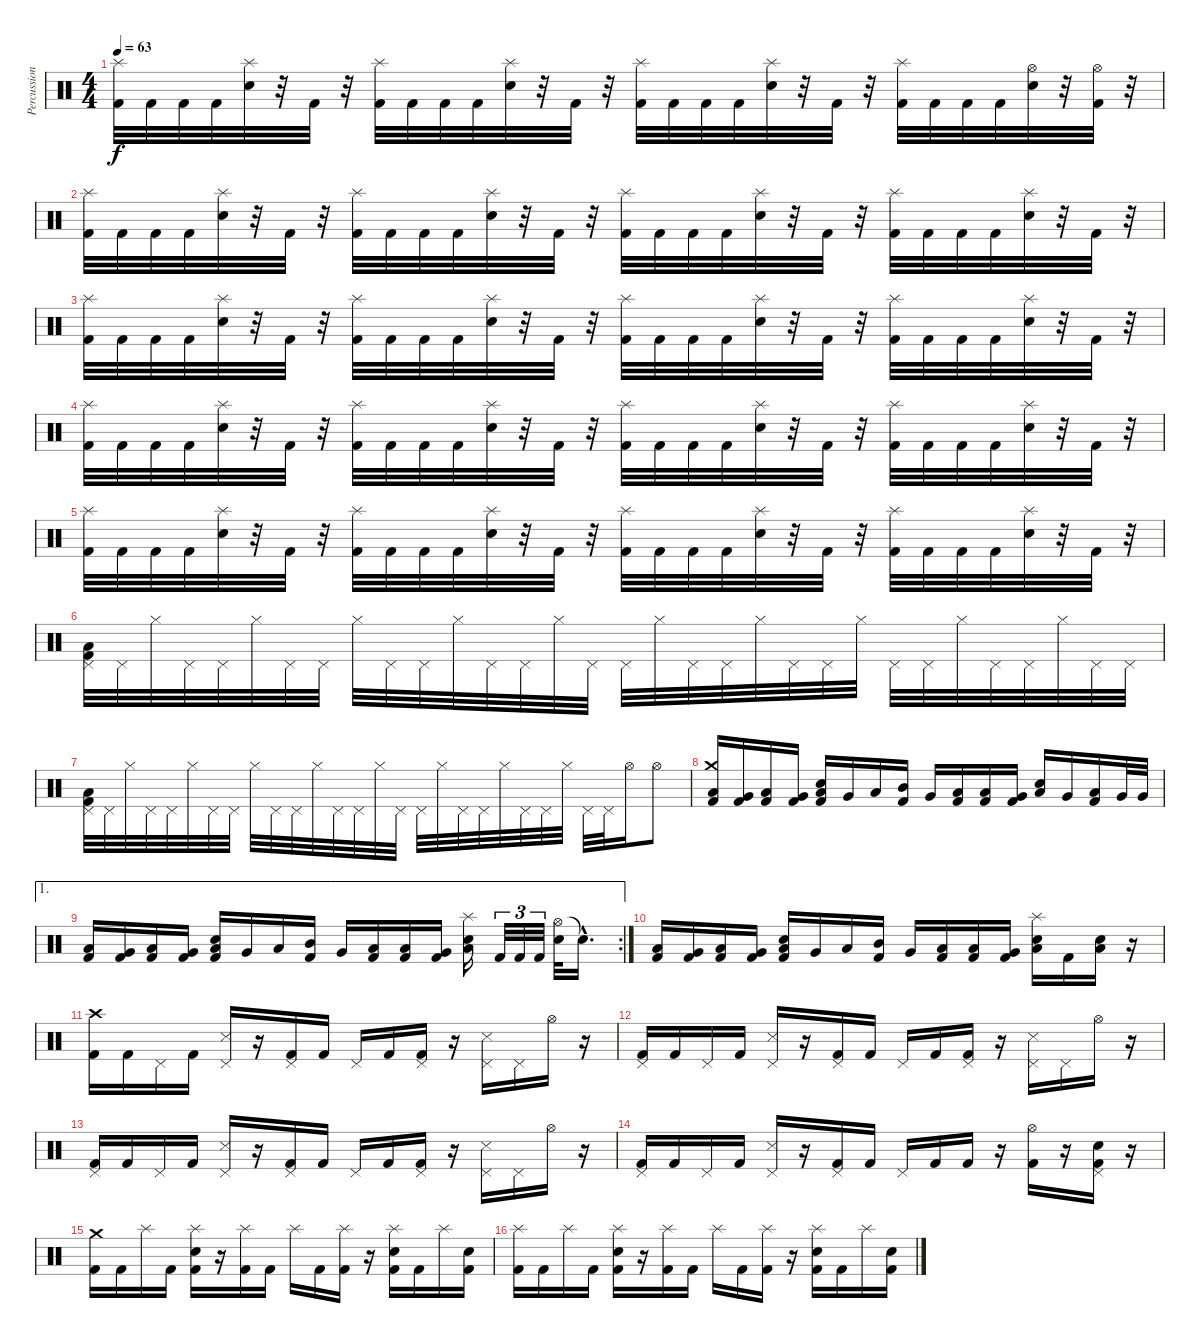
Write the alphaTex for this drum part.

\track ("Percussion" "Percussion") {instrument percussion}
\staff {score}
\articulation defaults
\ts (4 4)
\tempo 63
\clef neutral
\ks c
("Splash (hit)" "Kick (hit) 2").32{dy f} "Kick (hit) 2".32 "Kick (hit) 2".32 "Kick (hit) 2".32 ("Splash (hit)" "Electric Snare (hit)").32 r.32 "Kick (hit) 2".32 r.32 ("Splash (hit)" "Kick (hit) 2").32 "Kick (hit) 2".32 "Kick (hit) 2".32 "Kick (hit) 2".32 ("Splash (hit)" "Electric Snare (hit)").32 r.32 "Kick (hit) 2".32 r.32 ("Splash (hit)" "Kick (hit) 2").32 "Kick (hit) 2".32 "Kick (hit) 2".32 "Kick (hit) 2".32 ("Splash (hit)" "Electric Snare (hit)").32 r.32 "Kick (hit) 2".32 r.32 ("Splash (hit)" "Kick (hit) 2").32 "Kick (hit) 2".32 "Kick (hit) 2".32 "Kick (hit) 2".32 ("Hi-Hat (open)" "Electric Snare (hit)").32 r.32 ("Hi-Hat (open)" "Kick (hit) 2").32 r.32 |
("Splash (hit)" "Kick (hit) 2").32 "Kick (hit) 2".32 "Kick (hit) 2".32 "Kick (hit) 2".32 ("Splash (hit)" "Electric Snare (hit)").32 r.32 "Kick (hit) 2".32 r.32 ("Splash (hit)" "Kick (hit) 2").32 "Kick (hit) 2".32 "Kick (hit) 2".32 "Kick (hit) 2".32 ("Splash (hit)" "Electric Snare (hit)").32 r.32 "Kick (hit) 2".32 r.32 ("Splash (hit)" "Kick (hit) 2").32 "Kick (hit) 2".32 "Kick (hit) 2".32 "Kick (hit) 2".32 ("Splash (hit)" "Electric Snare (hit)").32 r.32 "Kick (hit) 2".32 r.32 ("Splash (hit)" "Kick (hit) 2").32 "Kick (hit) 2".32 "Kick (hit) 2".32 "Kick (hit) 2".32 ("Splash (hit)" "Electric Snare (hit)").32 r.32 "Kick (hit) 2".32 r.32 |
("Splash (hit)" "Kick (hit) 2").32 "Kick (hit) 2".32 "Kick (hit) 2".32 "Kick (hit) 2".32 ("Splash (hit)" "Electric Snare (hit)").32 r.32 "Kick (hit) 2".32 r.32 ("Splash (hit)" "Kick (hit) 2").32 "Kick (hit) 2".32 "Kick (hit) 2".32 "Kick (hit) 2".32 ("Splash (hit)" "Electric Snare (hit)").32 r.32 "Kick (hit) 2".32 r.32 ("Splash (hit)" "Kick (hit) 2").32 "Kick (hit) 2".32 "Kick (hit) 2".32 "Kick (hit) 2".32 ("Splash (hit)" "Electric Snare (hit)").32 r.32 "Kick (hit) 2".32 r.32 ("Splash (hit)" "Kick (hit) 2").32 "Kick (hit) 2".32 "Kick (hit) 2".32 "Kick (hit) 2".32 ("Splash (hit)" "Electric Snare (hit)").32 r.32 "Kick (hit) 2".32 r.32 |
("Splash (hit)" "Kick (hit) 2").32 "Kick (hit) 2".32 "Kick (hit) 2".32 "Kick (hit) 2".32 ("Splash (hit)" "Electric Snare (hit)").32 r.32 "Kick (hit) 2".32 r.32 ("Splash (hit)" "Kick (hit) 2").32 "Kick (hit) 2".32 "Kick (hit) 2".32 "Kick (hit) 2".32 ("Splash (hit)" "Electric Snare (hit)").32 r.32 "Kick (hit) 2".32 r.32 ("Splash (hit)" "Kick (hit) 2").32 "Kick (hit) 2".32 "Kick (hit) 2".32 "Kick (hit) 2".32 ("Splash (hit)" "Electric Snare (hit)").32 r.32 "Kick (hit) 2".32 r.32 ("Splash (hit)" "Kick (hit) 2").32 "Kick (hit) 2".32 "Kick (hit) 2".32 "Kick (hit) 2".32 ("Splash (hit)" "Electric Snare (hit)").32 r.32 "Kick (hit) 2".32 r.32 |
("Splash (hit)" "Kick (hit) 2").32 "Kick (hit) 2".32 "Kick (hit) 2".32 "Kick (hit) 2".32 ("Splash (hit)" "Electric Snare (hit)").32 r.32 "Kick (hit) 2".32 r.32 ("Splash (hit)" "Kick (hit) 2").32 "Kick (hit) 2".32 "Kick (hit) 2".32 "Kick (hit) 2".32 ("Splash (hit)" "Electric Snare (hit)").32 r.32 "Kick (hit) 2".32 r.32 ("Splash (hit)" "Kick (hit) 2").32 "Kick (hit) 2".32 "Kick (hit) 2".32 "Kick (hit) 2".32 ("Splash (hit)" "Electric Snare (hit)").32 r.32 "Kick (hit) 2".32 r.32 ("Splash (hit)" "Kick (hit) 2").32 "Kick (hit) 2".32 "Kick (hit) 2".32 "Kick (hit) 2".32 ("Splash (hit)" "Electric Snare (hit)").32 r.32 "Kick (hit) 2".32 r.32 |
("Pedal Hi-Hat (hit)" "Low Floor Tom (hit)" "Kick (hit) 2").32 "Pedal Hi-Hat (hit)".32 "Hi-Hat (closed)".32 "Pedal Hi-Hat (hit)".32 "Pedal Hi-Hat (hit)".32 "Hi-Hat (closed)".32 "Pedal Hi-Hat (hit)".32 "Pedal Hi-Hat (hit)".32 "Hi-Hat (closed)".32 "Pedal Hi-Hat (hit)".32 "Pedal Hi-Hat (hit)".32 "Hi-Hat (closed)".32 "Pedal Hi-Hat (hit)".32 "Pedal Hi-Hat (hit)".32 "Hi-Hat (closed)".32 "Pedal Hi-Hat (hit)".32 "Pedal Hi-Hat (hit)".32 "Hi-Hat (closed)".32 "Pedal Hi-Hat (hit)".32 "Pedal Hi-Hat (hit)".32 "Hi-Hat (closed)".32 "Pedal Hi-Hat (hit)".32 "Pedal Hi-Hat (hit)".32 "Hi-Hat (closed)".32 "Pedal Hi-Hat (hit)".32 "Pedal Hi-Hat (hit)".32 "Hi-Hat (closed)".32 "Pedal Hi-Hat (hit)".32 "Pedal Hi-Hat (hit)".32 "Hi-Hat (closed)".32 "Pedal Hi-Hat (hit)".32 "Pedal Hi-Hat (hit)".32 |
("Pedal Hi-Hat (hit)" "Low Floor Tom (hit)" "Kick (hit) 2").32 "Pedal Hi-Hat (hit)".32 "Hi-Hat (closed)".32 "Pedal Hi-Hat (hit)".32 "Pedal Hi-Hat (hit)".32 "Hi-Hat (closed)".32 "Pedal Hi-Hat (hit)".32 "Pedal Hi-Hat (hit)".32 "Hi-Hat (closed)".32 "Pedal Hi-Hat (hit)".32 "Pedal Hi-Hat (hit)".32 "Hi-Hat (closed)".32 "Pedal Hi-Hat (hit)".32 "Pedal Hi-Hat (hit)".32 "Hi-Hat (closed)".32 "Pedal Hi-Hat (hit)".32 "Pedal Hi-Hat (hit)".32 "Hi-Hat (closed)".32 "Pedal Hi-Hat (hit)".32 "Pedal Hi-Hat (hit)".32 "Hi-Hat (closed)".32 "Pedal Hi-Hat (hit)".32 "Pedal Hi-Hat (hit)".32 "Hi-Hat (closed)".32 "Pedal Hi-Hat (hit)".32 "Pedal Hi-Hat (hit)".32 "Hi-Hat (open)".16 "Hi-Hat (open)".8 |
("Crash medium (hit)" "Low Tom (hit)" "Kick (hit) 2").16 ("Very Low Tom (hit)" "Kick (hit) 2").16 ("Low Floor Tom (hit)" "Kick (hit) 2").16 ("Very Low Tom (hit)" "Kick (hit) 2").16 ("Electric Snare (hit)" "Low Tom (hit)" "Kick (hit) 2").16 "Very Low Tom (hit)".16 "Low Tom (hit)".16 ("Mid Tom (hit)" "Kick (hit) 2").16 "Very Low Tom (hit)".16 ("Low Floor Tom (hit)" "Kick (hit) 2").16 ("Low Tom (hit)" "Kick (hit) 2").16 ("Very Low Tom (hit)" "Kick (hit) 2").16 ("Electric Snare (hit)" "Low Floor Tom (hit)").16 "Very Low Tom (hit)".16 ("Low Tom (hit)" "Kick (hit) 2").16 "Very Low Tom (hit)".32 "Very Low Tom (hit)".32 |
\ae 1
\rc 2
("Low Tom (hit)" "Kick (hit) 2").16 ("Very Low Tom (hit)" "Kick (hit) 2").16 ("Low Floor Tom (hit)" "Kick (hit) 2").16 ("Very Low Tom (hit)" "Kick (hit) 2").16 ("Electric Snare (hit)" "Low Tom (hit)" "Kick (hit) 2").16 "Very Low Tom (hit)".16 "Low Tom (hit)".16 ("Mid Tom (hit)" "Kick (hit) 2").16 "Very Low Tom (hit)".16 ("Low Floor Tom (hit)" "Kick (hit) 2").16 ("Low Tom (hit)" "Kick (hit) 2").16 ("Very Low Tom (hit)" "Kick (hit) 2").16 ("Splash (hit)" "Electric Snare (hit)" "Low Floor Tom (hit)").16 "Kick (hit) 2".32{tu (3 2)} "Kick (hit) 2".32{tu (3 2)} "Kick (hit) 2".32{tu (3 2)} ("Hi-Hat (open)" "Electric Snare (hit)").32 "Snare (hit)"{hac t}.16{d} |
("Low Tom (hit)" "Kick (hit) 2").16 ("Very Low Tom (hit)" "Kick (hit) 2").16 ("Low Floor Tom (hit)" "Kick (hit) 2").16 ("Very Low Tom (hit)" "Kick (hit) 2").16 ("Electric Snare (hit)" "Low Tom (hit)" "Kick (hit) 2").16 "Very Low Tom (hit)".16 "Low Tom (hit)".16 ("Mid Tom (hit)" "Kick (hit) 2").16 "Very Low Tom (hit)".16 ("Low Floor Tom (hit)" "Kick (hit) 2").16 ("Low Tom (hit)" "Kick (hit) 2").16 ("Very Low Tom (hit)" "Kick (hit) 2").16 ("Splash (hit)" "Electric Snare (hit)" "Low Floor Tom (hit)").16 "Kick (hit) 2".16 ("Low Tom (hit)" "Electric Snare (hit)").16 r.16 |
("Crash high (hit)" "Kick (hit) 2").16 "Kick (hit) 2".16 "Pedal Hi-Hat (hit)".16 "Kick (hit) 2".16 ("Pedal Hi-Hat (hit)" "Snare (side stick) 3").16 r.16 ("Pedal Hi-Hat (hit)" "Kick (hit) 2").16 "Kick (hit) 2".16 "Pedal Hi-Hat (hit)".16 "Kick (hit) 2".16 ("Pedal Hi-Hat (hit)" "Kick (hit) 2").16 r.16 ("Pedal Hi-Hat (hit)" "Snare (side stick) 3").16 "Pedal Hi-Hat (hit)".16 "Hi-Hat (open)".16 r.16 |
("Pedal Hi-Hat (hit)" "Kick (hit) 2").16 "Kick (hit) 2".16 "Pedal Hi-Hat (hit)".16 "Kick (hit) 2".16 ("Pedal Hi-Hat (hit)" "Snare (side stick) 3").16 r.16 ("Pedal Hi-Hat (hit)" "Kick (hit) 2").16 "Kick (hit) 2".16 "Pedal Hi-Hat (hit)".16 "Kick (hit) 2".16 ("Pedal Hi-Hat (hit)" "Kick (hit) 2").16 r.16 ("Pedal Hi-Hat (hit)" "Snare (side stick) 3").16 "Pedal Hi-Hat (hit)".16 "Hi-Hat (open)".16 r.16 |
("Pedal Hi-Hat (hit)" "Kick (hit) 2").16 "Kick (hit) 2".16 "Pedal Hi-Hat (hit)".16 "Kick (hit) 2".16 ("Pedal Hi-Hat (hit)" "Snare (side stick) 3").16 r.16 ("Pedal Hi-Hat (hit)" "Kick (hit) 2").16 "Kick (hit) 2".16 "Pedal Hi-Hat (hit)".16 "Kick (hit) 2".16 ("Pedal Hi-Hat (hit)" "Kick (hit) 2").16 r.16 ("Pedal Hi-Hat (hit)" "Snare (side stick) 3").16 "Pedal Hi-Hat (hit)".16 "Hi-Hat (open)".16 r.16 |
("Pedal Hi-Hat (hit)" "Kick (hit) 2").16 "Kick (hit) 2".16 "Pedal Hi-Hat (hit)".16 "Kick (hit) 2".16 ("Pedal Hi-Hat (hit)" "Snare (side stick) 3").16 r.16 ("Pedal Hi-Hat (hit)" "Kick (hit) 2").16 "Kick (hit) 2".16 "Pedal Hi-Hat (hit)".16 "Kick (hit) 2".16 "Kick (hit) 2".16 r.16 ("Hi-Hat (open)" "Kick (hit) 2").16 r.16 ("Pedal Hi-Hat (hit)" "Electric Snare (hit)" "Kick (hit) 2").16 r.16 |
("Crash medium (hit)" "Kick (hit) 2").16 "Kick (hit) 2".16 "Splash (hit)".16 "Kick (hit) 2".16 ("Splash (hit)" "Electric Snare (hit)" "Kick (hit) 2").16 r.16 ("Splash (hit)" "Kick (hit) 2").16 "Kick (hit) 2".16 "Splash (hit)".16 "Kick (hit) 2".16 ("Splash (hit)" "Kick (hit) 2").16 r.16 ("Splash (hit)" "Electric Snare (hit)" "Kick (hit) 2").16 "Kick (hit) 2".16 "Splash (hit)".16 ("Electric Snare (hit)" "Kick (hit) 2").16 |
("Splash (hit)" "Kick (hit) 2").16 "Kick (hit) 2".16 "Splash (hit)".16 "Kick (hit) 2".16 ("Splash (hit)" "Electric Snare (hit)" "Kick (hit) 2").16 r.16 ("Splash (hit)" "Kick (hit) 2").16 "Kick (hit) 2".16 "Splash (hit)".16 "Kick (hit) 2".16 ("Splash (hit)" "Kick (hit) 2").16 r.16 ("Splash (hit)" "Electric Snare (hit)" "Kick (hit) 2").16 "Kick (hit) 2".16 "Splash (hit)".16 ("Electric Snare (hit)" "Kick (hit) 2").16
